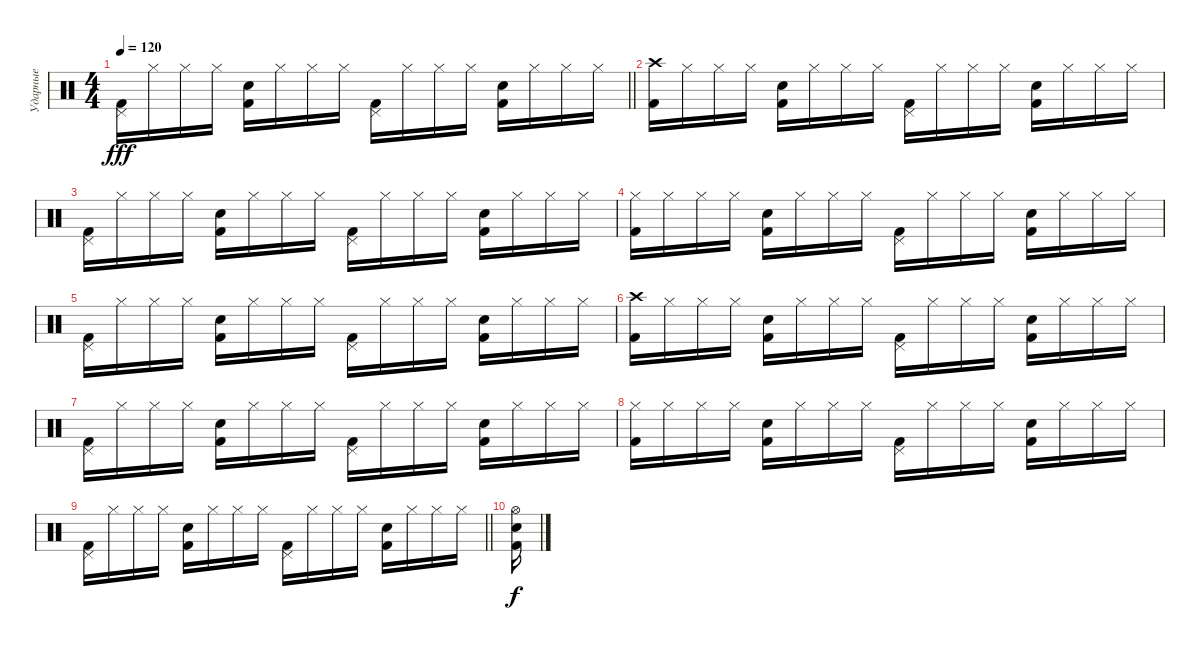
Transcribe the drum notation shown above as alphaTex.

\track ("Ударные" "Ударные") {instrument percussion}
\staff {score}
\articulation defaults
\ts (4 4)
\tempo 120
\clef neutral
\barLineRight lightlight
\ks c
("Pedal Hi-Hat (hit)" "Kick (hit) 2").16{dy fff} "Hi-Hat (closed)".16 "Hi-Hat (closed)".16 "Hi-Hat (closed)".16 ("Snare (hit) 2" "Kick (hit) 2").16 "Hi-Hat (closed)".16 "Hi-Hat (closed)".16 "Hi-Hat (closed)".16 ("Pedal Hi-Hat (hit)" "Kick (hit) 2").16 "Hi-Hat (closed)".16 "Hi-Hat (closed)".16 "Hi-Hat (closed)".16 ("Snare (hit) 2" "Kick (hit) 2").16 "Hi-Hat (closed)".16 "Hi-Hat (closed)".16 "Hi-Hat (closed)".16 |
("Crash high (hit)" "Kick (hit) 2").16 "Hi-Hat (closed)".16 "Hi-Hat (closed)".16 "Hi-Hat (closed)".16 ("Snare (hit) 2" "Kick (hit) 2").16 "Hi-Hat (closed)".16 "Hi-Hat (closed)".16 "Hi-Hat (closed)".16 ("Pedal Hi-Hat (hit)" "Kick (hit) 2").16 "Hi-Hat (closed)".16 "Hi-Hat (closed)".16 "Hi-Hat (closed)".16 ("Snare (hit) 2" "Kick (hit) 2").16 "Hi-Hat (closed)".16 "Hi-Hat (closed)".16 "Hi-Hat (closed)".16 |
("Pedal Hi-Hat (hit)" "Kick (hit) 2").16 "Hi-Hat (closed)".16 "Hi-Hat (closed)".16 "Hi-Hat (closed)".16 ("Snare (hit) 2" "Kick (hit) 2").16 "Hi-Hat (closed)".16 "Hi-Hat (closed)".16 "Hi-Hat (closed)".16 ("Pedal Hi-Hat (hit)" "Kick (hit) 2").16 "Hi-Hat (closed)".16 "Hi-Hat (closed)".16 "Hi-Hat (closed)".16 ("Snare (hit) 2" "Kick (hit) 2").16 "Hi-Hat (closed)".16 "Hi-Hat (closed)".16 "Hi-Hat (closed)".16 |
("Hi-Hat (closed)" "Kick (hit) 2").16 "Hi-Hat (closed)".16 "Hi-Hat (closed)".16 "Hi-Hat (closed)".16 ("Snare (hit) 2" "Kick (hit) 2").16 "Hi-Hat (closed)".16 "Hi-Hat (closed)".16 "Hi-Hat (closed)".16 ("Pedal Hi-Hat (hit)" "Kick (hit) 2").16 "Hi-Hat (closed)".16 "Hi-Hat (closed)".16 "Hi-Hat (closed)".16 ("Snare (hit) 2" "Kick (hit) 2").16 "Hi-Hat (closed)".16 "Hi-Hat (closed)".16 "Hi-Hat (closed)".16 |
("Pedal Hi-Hat (hit)" "Kick (hit) 2").16 "Hi-Hat (closed)".16 "Hi-Hat (closed)".16 "Hi-Hat (closed)".16 ("Snare (hit) 2" "Kick (hit) 2").16 "Hi-Hat (closed)".16 "Hi-Hat (closed)".16 "Hi-Hat (closed)".16 ("Pedal Hi-Hat (hit)" "Kick (hit) 2").16 "Hi-Hat (closed)".16 "Hi-Hat (closed)".16 "Hi-Hat (closed)".16 ("Snare (hit) 2" "Kick (hit) 2").16 "Hi-Hat (closed)".16 "Hi-Hat (closed)".16 "Hi-Hat (closed)".16 |
("Crash high (hit)" "Kick (hit) 2").16 "Hi-Hat (closed)".16 "Hi-Hat (closed)".16 "Hi-Hat (closed)".16 ("Snare (hit) 2" "Kick (hit) 2").16 "Hi-Hat (closed)".16 "Hi-Hat (closed)".16 "Hi-Hat (closed)".16 ("Pedal Hi-Hat (hit)" "Kick (hit) 2").16 "Hi-Hat (closed)".16 "Hi-Hat (closed)".16 "Hi-Hat (closed)".16 ("Snare (hit) 2" "Kick (hit) 2").16 "Hi-Hat (closed)".16 "Hi-Hat (closed)".16 "Hi-Hat (closed)".16 |
("Pedal Hi-Hat (hit)" "Kick (hit) 2").16 "Hi-Hat (closed)".16 "Hi-Hat (closed)".16 "Hi-Hat (closed)".16 ("Snare (hit) 2" "Kick (hit) 2").16 "Hi-Hat (closed)".16 "Hi-Hat (closed)".16 "Hi-Hat (closed)".16 ("Pedal Hi-Hat (hit)" "Kick (hit) 2").16 "Hi-Hat (closed)".16 "Hi-Hat (closed)".16 "Hi-Hat (closed)".16 ("Snare (hit) 2" "Kick (hit) 2").16 "Hi-Hat (closed)".16 "Hi-Hat (closed)".16 "Hi-Hat (closed)".16 |
("Hi-Hat (closed)" "Kick (hit) 2").16 "Hi-Hat (closed)".16 "Hi-Hat (closed)".16 "Hi-Hat (closed)".16 ("Snare (hit) 2" "Kick (hit) 2").16 "Hi-Hat (closed)".16 "Hi-Hat (closed)".16 "Hi-Hat (closed)".16 ("Pedal Hi-Hat (hit)" "Kick (hit) 2").16 "Hi-Hat (closed)".16 "Hi-Hat (closed)".16 "Hi-Hat (closed)".16 ("Snare (hit) 2" "Kick (hit) 2").16 "Hi-Hat (closed)".16 "Hi-Hat (closed)".16 "Hi-Hat (closed)".16 |
\barLineRight lightlight
("Pedal Hi-Hat (hit)" "Kick (hit) 2").16 "Hi-Hat (closed)".16 "Hi-Hat (closed)".16 "Hi-Hat (closed)".16 ("Snare (hit) 2" "Kick (hit) 2").16 "Hi-Hat (closed)".16 "Hi-Hat (closed)".16 "Hi-Hat (closed)".16 ("Pedal Hi-Hat (hit)" "Kick (hit) 2").16 "Hi-Hat (closed)".16 "Hi-Hat (closed)".16 "Hi-Hat (closed)".16 ("Snare (hit) 2" "Kick (hit) 2").16 "Hi-Hat (closed)".16 "Hi-Hat (closed)".16 "Hi-Hat (closed)".16 |
("Hi-Hat (open)" "Snare (hit) 2" "Kick (hit) 2").16{dy f}
